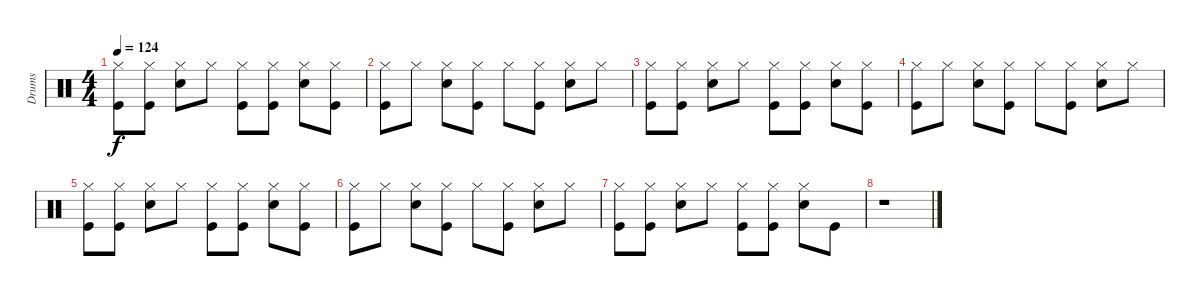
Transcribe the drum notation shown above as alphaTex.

\track ("Drums" "Drums") {instrument percussion}
\staff {score}
\articulation defaults
\ts (4 4)
\tempo 124
\clef neutral
\ks c
("Hi-Hat (closed)" "Kick (hit)").8{dy f} ("Hi-Hat (closed)" "Kick (hit)").8 ("Hi-Hat (closed)" "Electric Snare (hit)").8 "Hi-Hat (closed)".8 ("Hi-Hat (closed)" "Kick (hit)").8 ("Hi-Hat (closed)" "Kick (hit)").8 ("Hi-Hat (closed)" "Electric Snare (hit)").8 ("Hi-Hat (closed)" "Kick (hit)").8 |
("Hi-Hat (closed)" "Kick (hit)").8 "Hi-Hat (closed)".8 ("Hi-Hat (closed)" "Electric Snare (hit)").8 ("Hi-Hat (closed)" "Kick (hit)").8 "Hi-Hat (closed)".8 ("Hi-Hat (closed)" "Kick (hit)").8 ("Hi-Hat (closed)" "Electric Snare (hit)").8 "Hi-Hat (closed)".8 |
("Hi-Hat (closed)" "Kick (hit)").8 ("Hi-Hat (closed)" "Kick (hit)").8 ("Hi-Hat (closed)" "Electric Snare (hit)").8 "Hi-Hat (closed)".8 ("Hi-Hat (closed)" "Kick (hit)").8 ("Hi-Hat (closed)" "Kick (hit)").8 ("Hi-Hat (closed)" "Electric Snare (hit)").8 ("Hi-Hat (closed)" "Kick (hit)").8 |
("Hi-Hat (closed)" "Kick (hit)").8 "Hi-Hat (closed)".8 ("Hi-Hat (closed)" "Electric Snare (hit)").8 ("Hi-Hat (closed)" "Kick (hit)").8 "Hi-Hat (closed)".8 ("Hi-Hat (closed)" "Kick (hit)").8 ("Hi-Hat (closed)" "Electric Snare (hit)").8 "Hi-Hat (closed)".8 |
("Hi-Hat (closed)" "Kick (hit)").8 ("Hi-Hat (closed)" "Kick (hit)").8 ("Hi-Hat (closed)" "Electric Snare (hit)").8 "Hi-Hat (closed)".8 ("Hi-Hat (closed)" "Kick (hit)").8 ("Hi-Hat (closed)" "Kick (hit)").8 ("Hi-Hat (closed)" "Electric Snare (hit)").8 ("Hi-Hat (closed)" "Kick (hit)").8 |
("Hi-Hat (closed)" "Kick (hit)").8 "Hi-Hat (closed)".8 ("Hi-Hat (closed)" "Electric Snare (hit)").8 ("Hi-Hat (closed)" "Kick (hit)").8 "Hi-Hat (closed)".8 ("Hi-Hat (closed)" "Kick (hit)").8 ("Hi-Hat (closed)" "Electric Snare (hit)").8 "Hi-Hat (closed)".8 |
("Hi-Hat (closed)" "Kick (hit)").8 ("Hi-Hat (closed)" "Kick (hit)").8 ("Hi-Hat (closed)" "Electric Snare (hit)").8 "Hi-Hat (closed)".8 ("Hi-Hat (closed)" "Kick (hit)").8 ("Hi-Hat (closed)" "Kick (hit)").8 ("Hi-Hat (closed)" "Electric Snare (hit)").8 "Kick (hit)".8 |
r.1
